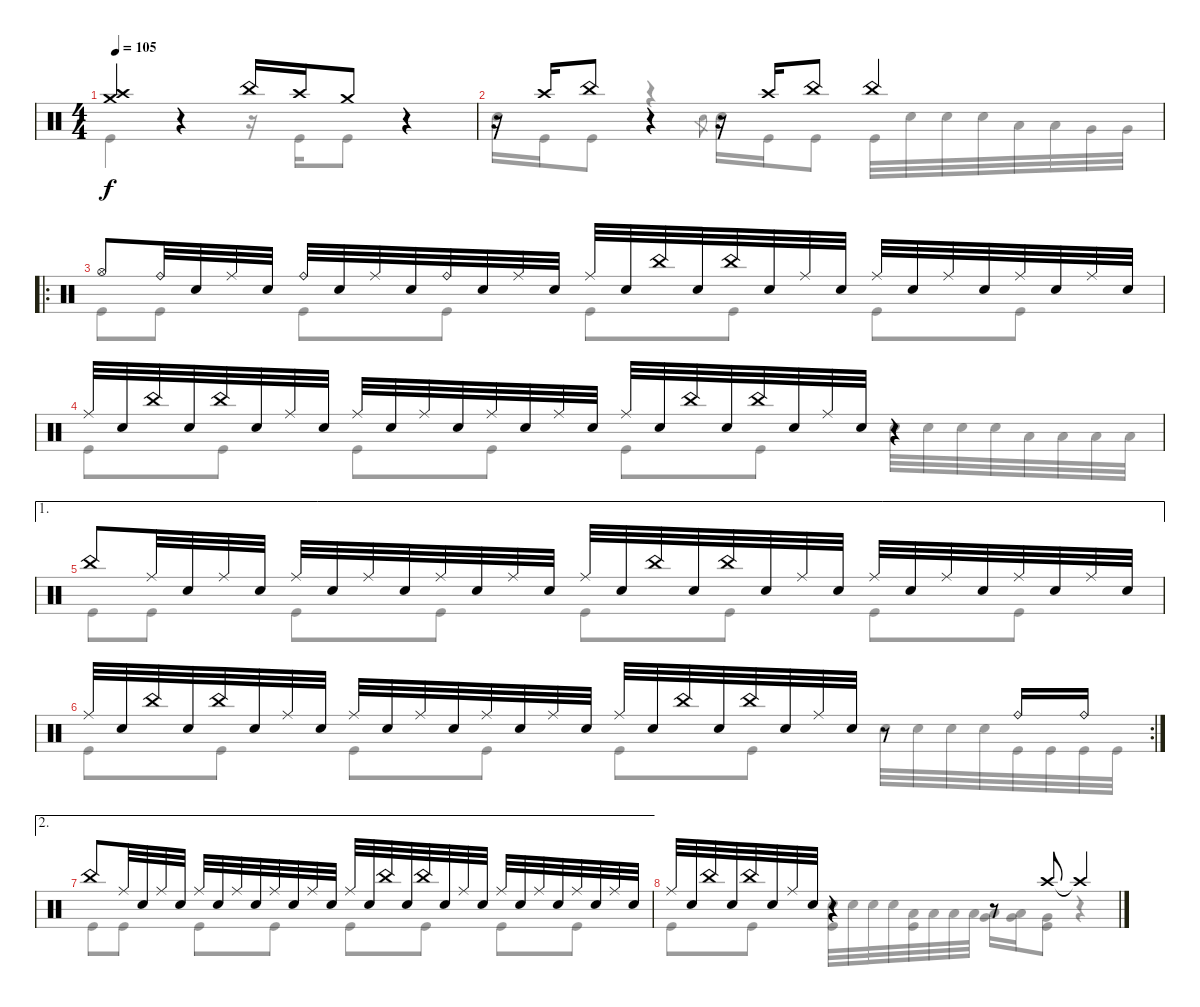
\track "" {instrument percussion}
\staff {score}
\articulation defaults
\voice
\ts (4 4)
\tempo 105
\clef neutral
\ks c
("Crash high (hit)" "Crash medium (hit)").4{dy f} r.4 "China (hit)".16 "Crash high (hit)".16 "Crash medium (hit)".8 r.4 |
r.16 "Crash high (hit)".16 "China (hit)".8 r.4 r.16 "Crash high (hit)".16 "China (hit)".8 "China (hit)".4 |
\ro "Hi-Hat (open)".8 "Ride (bell)".32 "Snare (hit) 2".32 "Ride (middle)".32 "Snare (hit) 2".32 "Ride (bell)".32 "Snare (hit) 2".32 "Ride (middle)".32 "Snare (hit) 2".32 "Ride (bell)".32 "Snare (hit) 2".32 "Ride (middle)".32 "Snare (hit) 2".32 "Ride (middle)".32 "Snare (hit) 2".32 "China (hit)".32 "Snare (hit) 2".32 "China (hit)".32 "Snare (hit) 2".32 "Ride (middle)".32 "Snare (hit) 2".32 "Ride (middle)".32 "Snare (hit) 2".32 "Ride (middle)".32 "Snare (hit) 2".32 "Ride (middle)".32 "Snare (hit) 2".32 "Ride (middle)".32 "Snare (hit) 2".32
|
"Ride (middle)".32 "Snare (hit) 2".32 "China (hit)".32 "Snare (hit) 2".32 "China (hit)".32 "Snare (hit) 2".32 "Ride (middle)".32 "Snare (hit) 2".32 "Ride (middle)".32 "Snare (hit) 2".32 "Ride (middle)".32 "Snare (hit) 2".32 "Ride (middle)".32 "Snare (hit) 2".32 "Ride (middle)".32 "Snare (hit) 2".32 "Ride (middle)".32 "Snare (hit) 2".32 "China (hit)".32 "Snare (hit) 2".32 "China (hit)".32 "Snare (hit) 2".32 "Ride (middle)".32 "Snare (hit) 2".32 r.4 |
\ae 1 "China (hit)".8 "Ride (middle)".32 "Snare (hit) 2".32 "Ride (middle)".32 "Snare (hit) 2".32 "Ride (middle)".32 "Snare (hit) 2".32 "Ride (middle)".32 "Snare (hit) 2".32 "Ride (middle)".32 "Snare (hit) 2".32 "Ride (middle)".32 "Snare (hit) 2".32 "Ride (middle)".32 "Snare (hit) 2".32 "China (hit)".32 "Snare (hit) 2".32 "China (hit)".32 "Snare (hit) 2".32 "Ride (middle)".32 "Snare (hit) 2".32 "Ride (middle)".32 "Snare (hit) 2".32 "Ride (middle)".32 "Snare (hit) 2".32 "Ride (middle)".32 "Snare (hit) 2".32 "Ride (middle)".32 "Snare (hit) 2".32
|
\rc 2 "Ride (middle)".32 "Snare (hit) 2".32 "China (hit)".32 "Snare (hit) 2".32 "China (hit)".32 "Snare (hit) 2".32 "Ride (middle)".32 "Snare (hit) 2".32 "Ride (middle)".32 "Snare (hit) 2".32 "Ride (middle)".32 "Snare (hit) 2".32 "Ride (middle)".32 "Snare (hit) 2".32 "Ride (middle)".32 "Snare (hit) 2".32 "Ride (middle)".32 "Snare (hit) 2".32 "China (hit)".32 "Snare (hit) 2".32 "China (hit)".32 "Snare (hit) 2".32 "Ride (middle)".32 "Snare (hit) 2".32
r.8 "Ride (bell)".16 "Ride (bell)".16 |
\ae 2 "China (hit)".8 "Ride (middle)".32 "Snare (hit) 2".32 "Ride (middle)".32 "Snare (hit) 2".32 "Ride (middle)".32 "Snare (hit) 2".32 "Ride (middle)".32 "Snare (hit) 2".32 "Ride (middle)".32 "Snare (hit) 2".32 "Ride (middle)".32 "Snare (hit) 2".32 "Ride (middle)".32 "Snare (hit) 2".32 "China (hit)".32 "Snare (hit) 2".32 "China (hit)".32 "Snare (hit) 2".32 "Ride (middle)".32 "Snare (hit) 2".32 "Ride (middle)".32 "Snare (hit) 2".32 "Ride (middle)".32 "Snare (hit) 2".32 "Ride (middle)".32 "Snare (hit) 2".32 "Ride (middle)".32 "Snare (hit) 2".32
|
"Ride (middle)".32 "Snare (hit) 2".32 "China (hit)".32 "Snare (hit) 2".32 "China (hit)".32 "Snare (hit) 2".32 "Ride (middle)".32 "Snare (hit) 2".32 r.4 r.8 "Crash high (hit)".8 "Crash high (hit)"{t}.4
\voice
\clef neutral
\ottava regular
\simile none
\ks c "Kick (hit)".4{dy f}
r.4 r.16 "Kick (hit)".16 "Kick (hit)".8 r.4 |
"Snare (hit) 2".16 "Kick (hit)".16 "Kick (hit)".8 r.4 "Snare (hit) 2".8{gr} "Snare (hit) 2".16 "Kick (hit)".16 "Kick (hit)".8 "Kick (hit)".32 "Snare (hit) 2".32 "Snare (hit) 2".32 "Snare (hit) 2".32 "Low Tom (hit)".32 "Low Tom (hit)".32 "Very Low Tom (hit)".32 "Very Low Tom (hit)".32 |
"Kick (hit)".8 "Kick (hit)".8 "Kick (hit)".8 "Kick (hit)".8 "Kick (hit)".8 "Kick (hit)".8 "Kick (hit)".8 "Kick (hit)".8 |
"Kick (hit)".8 "Kick (hit)".8 "Kick (hit)".8 "Kick (hit)".8 "Kick (hit)".8 "Kick (hit)".8 "Snare (hit) 2".32 "Snare (hit) 2".32 "Snare (hit) 2".32 "Snare (hit) 2".32 "Low Tom (hit)".32 "Low Tom (hit)".32 "Low Tom (hit)".32 "Low Tom (hit)".32 |
"Kick (hit)".8 "Kick (hit)".8 "Kick (hit)".8 "Kick (hit)".8 "Kick (hit)".8 "Kick (hit)".8 "Kick (hit)".8 "Kick (hit)".8 |
"Kick (hit)".8 "Kick (hit)".8 "Kick (hit)".8 "Kick (hit)".8 "Kick (hit)".8 "Kick (hit)".8 "Snare (hit) 2".32 "Snare (hit) 2".32 "Snare (hit) 2".32 "Snare (hit) 2".32 "Kick (hit)".32 "Kick (hit)".32 "Kick (hit)".32 "Kick (hit)".32 |
"Kick (hit)".8 "Kick (hit)".8 "Kick (hit)".8 "Kick (hit)".8 "Kick (hit)".8 "Kick (hit)".8 "Kick (hit)".8 "Kick (hit)".8 |
"Kick (hit)".8 "Kick (hit)".8 ("Snare (hit) 2" "Kick (hit)").32 "Snare (hit) 2".32 "Snare (hit) 2".32 "Snare (hit) 2".32 ("Low Tom (hit)" "Kick (hit)").32 "Low Tom (hit)".32 "Low Tom (hit)".32 "Low Tom (hit)".32 ("Low Tom (hit)" "Very Low Tom (hit)").16 ("Low Tom (hit)" "Very Low Tom (hit)").16 ("Very Low Tom (hit)" "Kick (hit)").8 r.4
